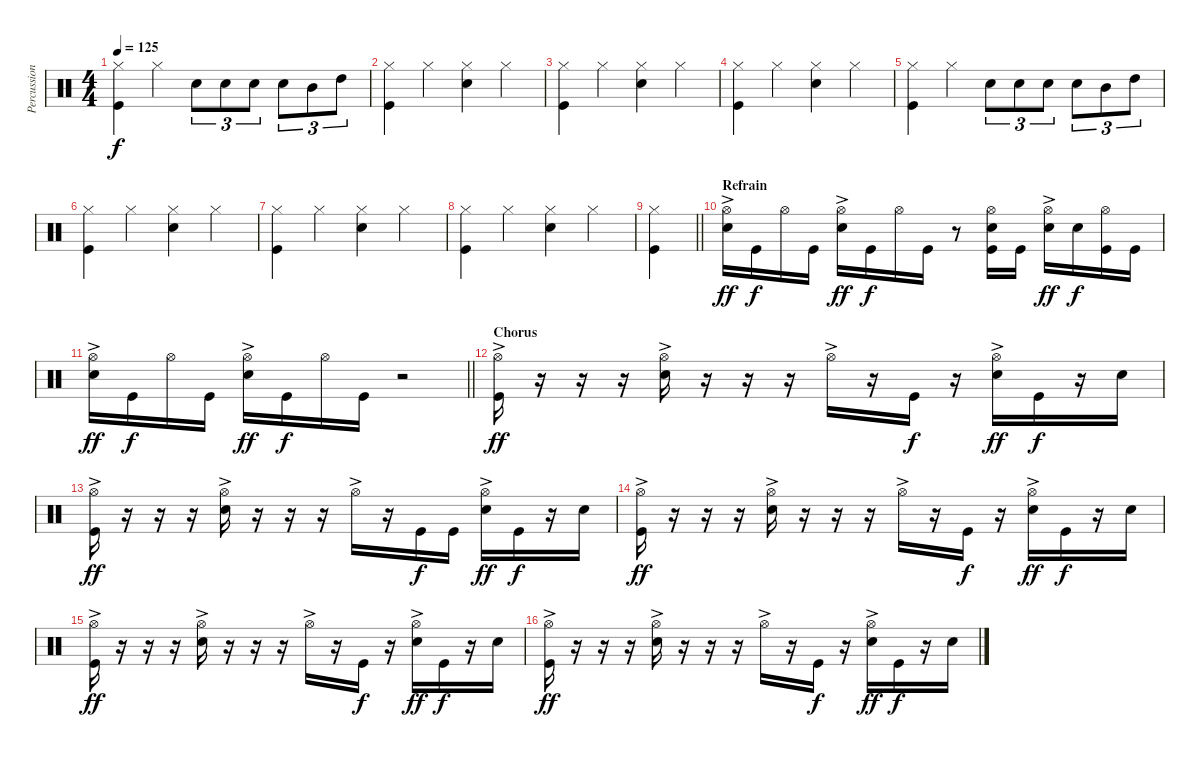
\track ("Percussion" "Percussion") {instrument percussion}
\staff {score}
\articulation defaults
\ts (4 4)
\tempo 125
\clef neutral
\ks c
("Hi-Hat (closed)" "Kick (hit)").4{dy f} "Hi-Hat (closed)".4 "Snare (hit) 2".8{tu (3 2)} "Snare (hit) 2".8{tu (3 2)} "Snare (hit) 2".8{tu (3 2)} "Snare (hit) 2".8{tu (3 2)} "Mid Tom (hit)".8{tu (3 2)} "High Tom (hit)".8{tu (3 2)} |
("Hi-Hat (closed)" "Kick (hit)").4 "Hi-Hat (closed)".4 ("Hi-Hat (closed)" "Snare (hit) 2").4 "Hi-Hat (closed)".4 |
("Hi-Hat (closed)" "Kick (hit)").4 "Hi-Hat (closed)".4 ("Hi-Hat (closed)" "Snare (hit) 2").4 "Hi-Hat (closed)".4 |
("Hi-Hat (closed)" "Kick (hit)").4 "Hi-Hat (closed)".4 ("Hi-Hat (closed)" "Snare (hit) 2").4 "Hi-Hat (closed)".4 |
("Hi-Hat (closed)" "Kick (hit)").4 "Hi-Hat (closed)".4 "Snare (hit) 2".8{tu (3 2)} "Snare (hit) 2".8{tu (3 2)} "Snare (hit) 2".8{tu (3 2)} "Snare (hit) 2".8{tu (3 2)} "Mid Tom (hit)".8{tu (3 2)} "High Tom (hit)".8{tu (3 2)} |
("Hi-Hat (closed)" "Kick (hit)").4 "Hi-Hat (closed)".4 ("Hi-Hat (closed)" "Snare (hit) 2").4 "Hi-Hat (closed)".4 |
("Hi-Hat (closed)" "Kick (hit)").4 "Hi-Hat (closed)".4 ("Hi-Hat (closed)" "Snare (hit) 2").4 "Hi-Hat (closed)".4 |
("Hi-Hat (closed)" "Kick (hit)").4 "Hi-Hat (closed)".4 ("Hi-Hat (closed)" "Snare (hit) 2").4 "Hi-Hat (closed)".4 |
\barLineRight lightlight
("Hi-Hat (closed)" "Kick (hit)").4 |
\section ("" "Refrain")
("Hi-Hat (open)"{ac} "Snare (hit) 2").16{dy ff} "Kick (hit)".16{dy f} "Hi-Hat (open)".16 "Kick (hit)".16 ("Hi-Hat (open)"{ac} "Snare (hit) 2").16{dy ff} "Kick (hit)".16{dy f} "Hi-Hat (open)".16 "Kick (hit)".16 r.8 ("Hi-Hat (open)" "Snare (hit) 2" "Kick (hit)").16 "Kick (hit)".16 ("Hi-Hat (open)"{ac} "Snare (hit) 2").16{dy ff} "Snare (hit) 2".16{dy f} ("Hi-Hat (open)" "Kick (hit)").16 "Kick (hit)".16 |
\barLineRight lightlight
("Hi-Hat (open)"{ac} "Snare (hit) 2").16{dy ff} "Kick (hit)".16{dy f} "Hi-Hat (open)".16 "Kick (hit)".16 ("Hi-Hat (open)"{ac} "Snare (hit) 2").16{dy ff} "Kick (hit)".16{dy f} "Hi-Hat (open)".16 "Kick (hit)".16 r.2 |
\section ("" "Chorus")
("Hi-Hat (open)"{ac} "Kick (hit)").16{dy ff} r.16 r.16 r.16 ("Hi-Hat (open)"{ac} "Snare (hit) 2").16 r.16 r.16 r.16 "Hi-Hat (open)"{ac}.16 r.16 "Kick (hit)".16{dy f} r.16 ("Hi-Hat (open)"{ac} "Snare (hit) 2").16{dy ff} "Kick (hit)".16{dy f} r.16 "Snare (hit) 2".16 |
("Hi-Hat (open)"{ac} "Kick (hit)").16{dy ff} r.16 r.16 r.16 ("Hi-Hat (open)"{ac} "Snare (hit) 2").16 r.16 r.16 r.16 "Hi-Hat (open)"{ac}.16 r.16 "Kick (hit)".16{dy f} "Kick (hit)".16 ("Hi-Hat (open)"{ac} "Snare (hit) 2").16{dy ff} "Kick (hit)".16{dy f} r.16 "Snare (hit) 2".16 |
("Hi-Hat (open)"{ac} "Kick (hit)").16{dy ff} r.16 r.16 r.16 ("Hi-Hat (open)"{ac} "Snare (hit) 2").16 r.16 r.16 r.16 "Hi-Hat (open)"{ac}.16 r.16 "Kick (hit)".16{dy f} r.16 ("Hi-Hat (open)"{ac} "Snare (hit) 2").16{dy ff} "Kick (hit)".16{dy f} r.16 "Snare (hit) 2".16 |
("Hi-Hat (open)"{ac} "Kick (hit)").16{dy ff} r.16 r.16 r.16 ("Hi-Hat (open)"{ac} "Snare (hit) 2").16 r.16 r.16 r.16 "Hi-Hat (open)"{ac}.16 r.16 "Kick (hit)".16{dy f} r.16 ("Hi-Hat (open)"{ac} "Snare (hit) 2").16{dy ff} "Kick (hit)".16{dy f} r.16 "Snare (hit) 2".16 |
("Hi-Hat (open)"{ac} "Kick (hit)").16{dy ff} r.16 r.16 r.16 ("Hi-Hat (open)"{ac} "Snare (hit) 2").16 r.16 r.16 r.16 "Hi-Hat (open)"{ac}.16 r.16 "Kick (hit)".16{dy f} r.16 ("Hi-Hat (open)"{ac} "Snare (hit) 2").16{dy ff} "Kick (hit)".16{dy f} r.16 "Snare (hit) 2".16
